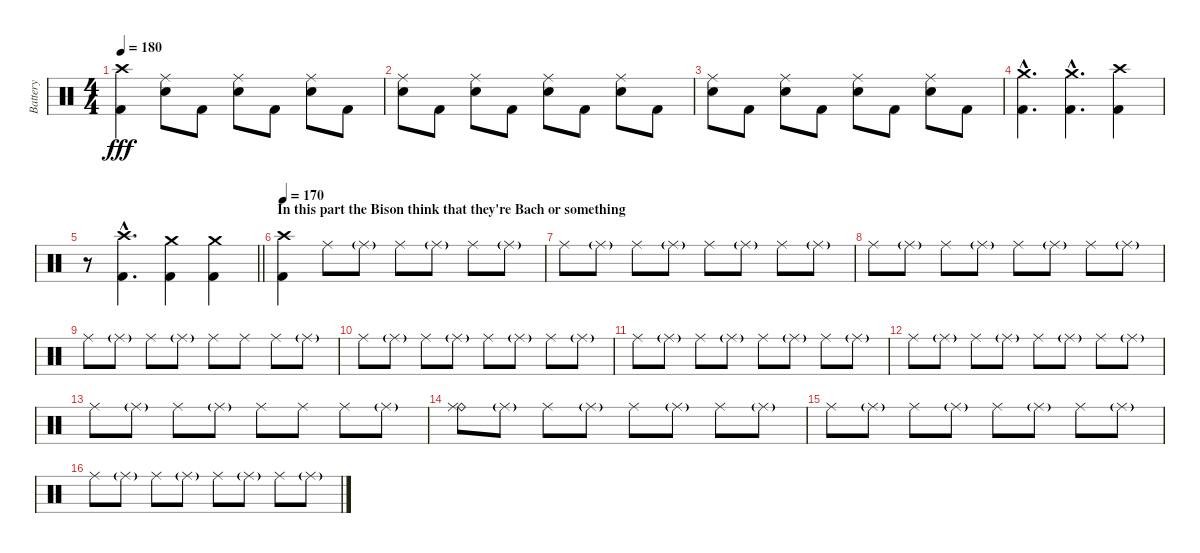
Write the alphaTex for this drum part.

\track ("Battery" "Battery") {instrument percussion}
\staff {score}
\articulation defaults
\ts (4 4)
\tempo 180
\clef neutral
\ks c
("Crash high (hit)" "Kick (hit) 2").4{dy fff} ("Ride (middle)" "Electric Snare (hit)").8 "Kick (hit) 2".8 ("Ride (middle)" "Electric Snare (hit)").8 "Kick (hit) 2".8 ("Ride (middle)" "Electric Snare (hit)").8 "Kick (hit) 2".8 |
("Ride (middle)" "Electric Snare (hit)").8 "Kick (hit) 2".8 ("Ride (middle)" "Electric Snare (hit)").8 "Kick (hit) 2".8 ("Ride (middle)" "Electric Snare (hit)").8 "Kick (hit) 2".8 ("Ride (middle)" "Electric Snare (hit)").8 "Kick (hit) 2".8 |
("Ride (middle)" "Electric Snare (hit)").8 "Kick (hit) 2".8 ("Ride (middle)" "Electric Snare (hit)").8 "Kick (hit) 2".8 ("Ride (middle)" "Electric Snare (hit)").8 "Kick (hit) 2".8 ("Ride (middle)" "Electric Snare (hit)").8 "Kick (hit) 2".8 |
("Crash medium (hit)"{hac} "Kick (hit) 2"{hac}).4{d} ("Crash medium (hit)"{hac} "Kick (hit) 2"{hac}).4{d} ("Crash high (hit)" "Kick (hit) 2").4 |
\barLineRight lightlight
r.8 ("Crash high (hit)"{hac} "Kick (hit) 2"{hac}).4{d} ("Crash medium (hit)" "Kick (hit) 2").4 ("Crash medium (hit)" "Kick (hit) 2").4 |
\section ("" "In this part the Bison think that they're Bach or something")
\tempo 170
("Crash high (hit)" "Kick (hit) 2").4 "Ride (middle)".8 "Ride (middle)"{g}.8 "Ride (middle)".8 "Ride (middle)"{g}.8 "Ride (middle)".8 "Ride (middle)"{g}.8 |
"Ride (middle)".8 "Ride (middle)"{g}.8 "Ride (middle)".8 "Ride (middle)"{g}.8 "Ride (middle)".8 "Ride (middle)"{g}.8 "Ride (middle)".8 "Ride (middle)"{g}.8 |
"Ride (middle)".8 "Ride (middle)"{g}.8 "Ride (middle)".8 "Ride (middle)"{g}.8 "Ride (middle)".8 "Ride (middle)"{g}.8 "Ride (middle)".8 "Ride (middle)"{g}.8 |
"Ride (middle)".8 "Ride (middle)"{g}.8 "Ride (middle)".8 "Ride (middle)"{g}.8 "Ride (middle)".8 "Ride (middle)".8 "Ride (middle)".8 "Ride (middle)"{g}.8 |
"Ride (middle)".8 "Ride (middle)"{g}.8 "Ride (middle)".8 "Ride (middle)"{g}.8 "Ride (middle)".8 "Ride (middle)"{g}.8 "Ride (middle)".8 "Ride (middle)"{g}.8 |
"Ride (middle)".8 "Ride (middle)"{g}.8 "Ride (middle)".8 "Ride (middle)"{g}.8 "Ride (middle)".8 "Ride (middle)"{g}.8 "Ride (middle)".8 "Ride (middle)"{g}.8 |
"Ride (middle)".8 "Ride (middle)"{g}.8 "Ride (middle)".8 "Ride (middle)"{g}.8 "Ride (middle)".8 "Ride (middle)"{g}.8 "Ride (middle)".8 "Ride (middle)"{g}.8 |
"Ride (middle)".8 "Ride (middle)"{g}.8 "Ride (middle)".8 "Ride (middle)"{g}.8 "Ride (middle)".8 "Ride (middle)".8 "Ride (middle)".8 "Ride (middle)"{g}.8 |
("Ride (bell)" "Ride (middle)").8 "Ride (middle)"{g}.8 "Ride (middle)".8 "Ride (middle)"{g}.8 "Ride (middle)".8 "Ride (middle)"{g}.8 "Ride (middle)".8 "Ride (middle)"{g}.8 |
"Ride (middle)".8 "Ride (middle)"{g}.8 "Ride (middle)".8 "Ride (middle)"{g}.8 "Ride (middle)".8 "Ride (middle)"{g}.8 "Ride (middle)".8 "Ride (middle)"{g}.8 |
"Ride (middle)".8 "Ride (middle)"{g}.8 "Ride (middle)".8 "Ride (middle)"{g}.8 "Ride (middle)".8 "Ride (middle)"{g}.8 "Ride (middle)".8 "Ride (middle)"{g}.8
